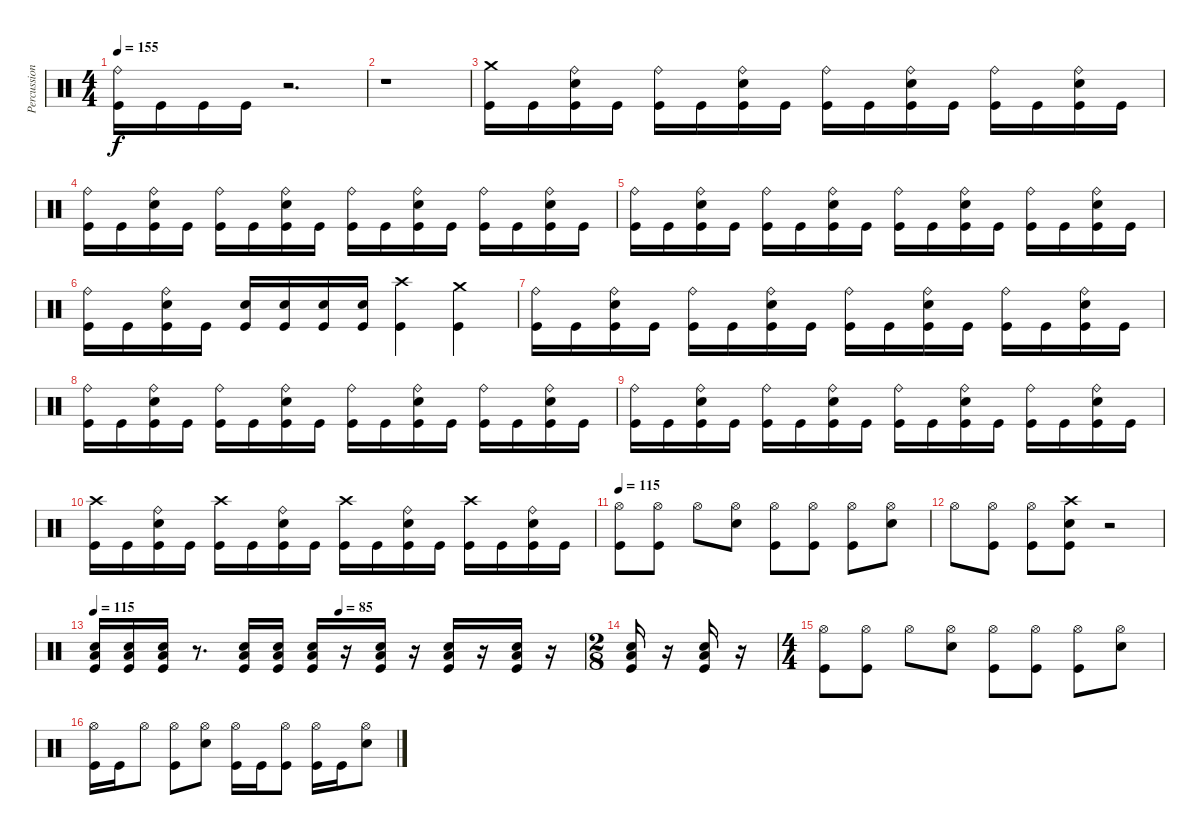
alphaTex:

\track ("Percussion" "Percussion") {instrument percussion}
\staff {score}
\articulation defaults
\ts (4 4)
\tempo 155
\clef neutral
\ks c
("Ride (bell)" "Kick (hit)").16{dy f} "Kick (hit)".16 "Kick (hit)".16 "Kick (hit)".16 r.2{d} |
r.1 |
("Crash medium (hit)" "Kick (hit)").16 "Kick (hit)".16 ("Ride (bell)" "Snare (hit) 2" "Kick (hit)").16 "Kick (hit)".16 ("Ride (bell)" "Kick (hit)").16 "Kick (hit)".16 ("Ride (bell)" "Snare (hit) 2" "Kick (hit)").16 "Kick (hit)".16 ("Ride (bell)" "Kick (hit)").16 "Kick (hit)".16 ("Ride (bell)" "Snare (hit) 2" "Kick (hit)").16 "Kick (hit)".16 ("Ride (bell)" "Kick (hit)").16 "Kick (hit)".16 ("Ride (bell)" "Snare (hit) 2" "Kick (hit)").16 "Kick (hit)".16 |
("Ride (bell)" "Kick (hit)").16 "Kick (hit)".16 ("Ride (bell)" "Snare (hit) 2" "Kick (hit)").16 "Kick (hit)".16 ("Ride (bell)" "Kick (hit)").16 "Kick (hit)".16 ("Ride (bell)" "Snare (hit) 2" "Kick (hit)").16 "Kick (hit)".16 ("Ride (bell)" "Kick (hit)").16 "Kick (hit)".16 ("Ride (bell)" "Snare (hit) 2" "Kick (hit)").16 "Kick (hit)".16 ("Ride (bell)" "Kick (hit)").16 "Kick (hit)".16 ("Ride (bell)" "Snare (hit) 2" "Kick (hit)").16 "Kick (hit)".16 |
("Ride (bell)" "Kick (hit)").16 "Kick (hit)".16 ("Ride (bell)" "Snare (hit) 2" "Kick (hit)").16 "Kick (hit)".16 ("Ride (bell)" "Kick (hit)").16 "Kick (hit)".16 ("Ride (bell)" "Snare (hit) 2" "Kick (hit)").16 "Kick (hit)".16 ("Ride (bell)" "Kick (hit)").16 "Kick (hit)".16 ("Ride (bell)" "Snare (hit) 2" "Kick (hit)").16 "Kick (hit)".16 ("Ride (bell)" "Kick (hit)").16 "Kick (hit)".16 ("Ride (bell)" "Snare (hit) 2" "Kick (hit)").16 "Kick (hit)".16 |
("Ride (bell)" "Kick (hit)").16 "Kick (hit)".16 ("Ride (bell)" "Snare (hit) 2" "Kick (hit)").16 "Kick (hit)".16 ("Snare (hit) 2" "Kick (hit)").16 ("Snare (hit) 2" "Kick (hit)").16 ("Snare (hit) 2" "Kick (hit)").16 ("Snare (hit) 2" "Kick (hit)").16 ("Crash high (hit)" "Kick (hit)").4 ("Crash medium (hit)" "Kick (hit)").4 |
("Ride (bell)" "Kick (hit)").16 "Kick (hit)".16 ("Ride (bell)" "Snare (hit) 2" "Kick (hit)").16 "Kick (hit)".16 ("Ride (bell)" "Kick (hit)").16 "Kick (hit)".16 ("Ride (bell)" "Snare (hit) 2" "Kick (hit)").16 "Kick (hit)".16 ("Ride (bell)" "Kick (hit)").16 "Kick (hit)".16 ("Ride (bell)" "Snare (hit) 2" "Kick (hit)").16 "Kick (hit)".16 ("Ride (bell)" "Kick (hit)").16 "Kick (hit)".16 ("Ride (bell)" "Snare (hit) 2" "Kick (hit)").16 "Kick (hit)".16 |
("Ride (bell)" "Kick (hit)").16 "Kick (hit)".16 ("Ride (bell)" "Snare (hit) 2" "Kick (hit)").16 "Kick (hit)".16 ("Ride (bell)" "Kick (hit)").16 "Kick (hit)".16 ("Ride (bell)" "Snare (hit) 2" "Kick (hit)").16 "Kick (hit)".16 ("Ride (bell)" "Kick (hit)").16 "Kick (hit)".16 ("Ride (bell)" "Snare (hit) 2" "Kick (hit)").16 "Kick (hit)".16 ("Ride (bell)" "Kick (hit)").16 "Kick (hit)".16 ("Ride (bell)" "Snare (hit) 2" "Kick (hit)").16 "Kick (hit)".16 |
("Ride (bell)" "Kick (hit)").16 "Kick (hit)".16 ("Ride (bell)" "Snare (hit) 2" "Kick (hit)").16 "Kick (hit)".16 ("Ride (bell)" "Kick (hit)").16 "Kick (hit)".16 ("Ride (bell)" "Snare (hit) 2" "Kick (hit)").16 "Kick (hit)".16 ("Ride (bell)" "Kick (hit)").16 "Kick (hit)".16 ("Ride (bell)" "Snare (hit) 2" "Kick (hit)").16 "Kick (hit)".16 ("Ride (bell)" "Kick (hit)").16 "Kick (hit)".16 ("Ride (bell)" "Snare (hit) 2" "Kick (hit)").16 "Kick (hit)".16 |
("Crash high (hit)" "Kick (hit)").16 "Kick (hit)".16 ("Ride (bell)" "Snare (hit) 2" "Kick (hit)").16 "Kick (hit)".16 ("Crash high (hit)" "Kick (hit)").16 "Kick (hit)".16 ("Ride (bell)" "Snare (hit) 2" "Kick (hit)").16 "Kick (hit)".16 ("Crash high (hit)" "Kick (hit)").16 "Kick (hit)".16 ("Ride (bell)" "Snare (hit) 2" "Kick (hit)").16 "Kick (hit)".16 ("Crash high (hit)" "Kick (hit)").16 "Kick (hit)".16 ("Ride (bell)" "Snare (hit) 2" "Kick (hit)").16 "Kick (hit)".16 |
\tempo 115
("Hi-Hat (open)" "Kick (hit)").8 ("Hi-Hat (open)" "Kick (hit)").8 "Hi-Hat (open)".8 ("Hi-Hat (open)" "Snare (hit) 2").8 ("Hi-Hat (open)" "Kick (hit)").8 ("Hi-Hat (open)" "Kick (hit)").8 ("Hi-Hat (open)" "Kick (hit)").8 ("Hi-Hat (open)" "Snare (hit) 2").8 |
"Hi-Hat (open)".8 ("Hi-Hat (open)" "Kick (hit)").8 ("Hi-Hat (open)" "Kick (hit)").8 ("Crash high (hit)" "Snare (hit) 2" "Kick (hit)").8 r.2 |
\tempo 115
\tempo (85 0.5)
("Low Floor Tom (hit)" "Snare (hit) 2" "Kick (hit)").16 ("Low Floor Tom (hit)" "Snare (hit) 2" "Kick (hit)").16 ("Low Floor Tom (hit)" "Snare (hit) 2" "Kick (hit)").16 r.8{d} ("Low Floor Tom (hit)" "Snare (hit) 2" "Kick (hit)").16 ("Low Floor Tom (hit)" "Snare (hit) 2" "Kick (hit)").16 ("Low Floor Tom (hit)" "Snare (hit) 2" "Kick (hit)").16 r.16 ("Low Floor Tom (hit)" "Snare (hit) 2" "Kick (hit)").16 r.16 ("Low Floor Tom (hit)" "Snare (hit) 2" "Kick (hit)").16 r.16 ("Low Floor Tom (hit)" "Snare (hit) 2" "Kick (hit)").16 r.16 |
\ts (2 8)
("Low Floor Tom (hit)" "Snare (hit) 2" "Kick (hit)").16 r.16 ("Low Floor Tom (hit)" "Snare (hit) 2" "Kick (hit)").16 r.16 |
\ts (4 4)
("Hi-Hat (open)" "Kick (hit)").8 ("Hi-Hat (open)" "Kick (hit)").8 "Hi-Hat (open)".8 ("Hi-Hat (open)" "Snare (hit) 2").8 ("Hi-Hat (open)" "Kick (hit)").8 ("Hi-Hat (open)" "Kick (hit)").8 ("Hi-Hat (open)" "Kick (hit)").8 ("Hi-Hat (open)" "Snare (hit) 2").8 |
("Hi-Hat (open)" "Kick (hit)").16 "Kick (hit)".16 "Hi-Hat (open)".8 ("Hi-Hat (open)" "Kick (hit)").8 ("Hi-Hat (open)" "Snare (hit) 2").8 ("Hi-Hat (open)" "Kick (hit)").16 "Kick (hit)".16 ("Hi-Hat (open)" "Kick (hit)").8 ("Hi-Hat (open)" "Kick (hit)").16 "Kick (hit)".16 ("Hi-Hat (open)" "Snare (hit) 2").8
